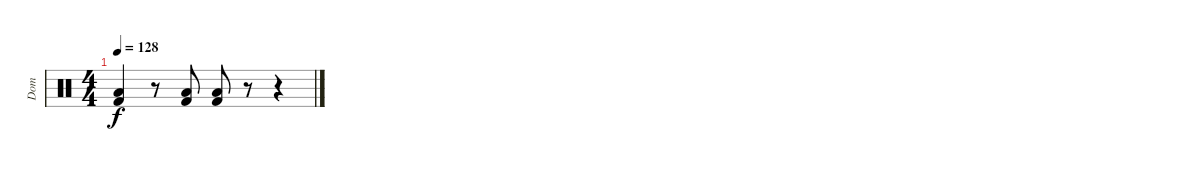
\track ("Dom " "Dom ") {instrument percussion}
\staff {score}
\articulation defaults
\ts (4 4)
\tempo 128
\clef neutral
\ks c
("Low Floor Tom (hit)" "Kick (hit) 2").4{dy f} r.8 ("Low Floor Tom (hit)" "Kick (hit) 2").8 ("Low Floor Tom (hit)" "Kick (hit) 2").8 r.8 r.4
